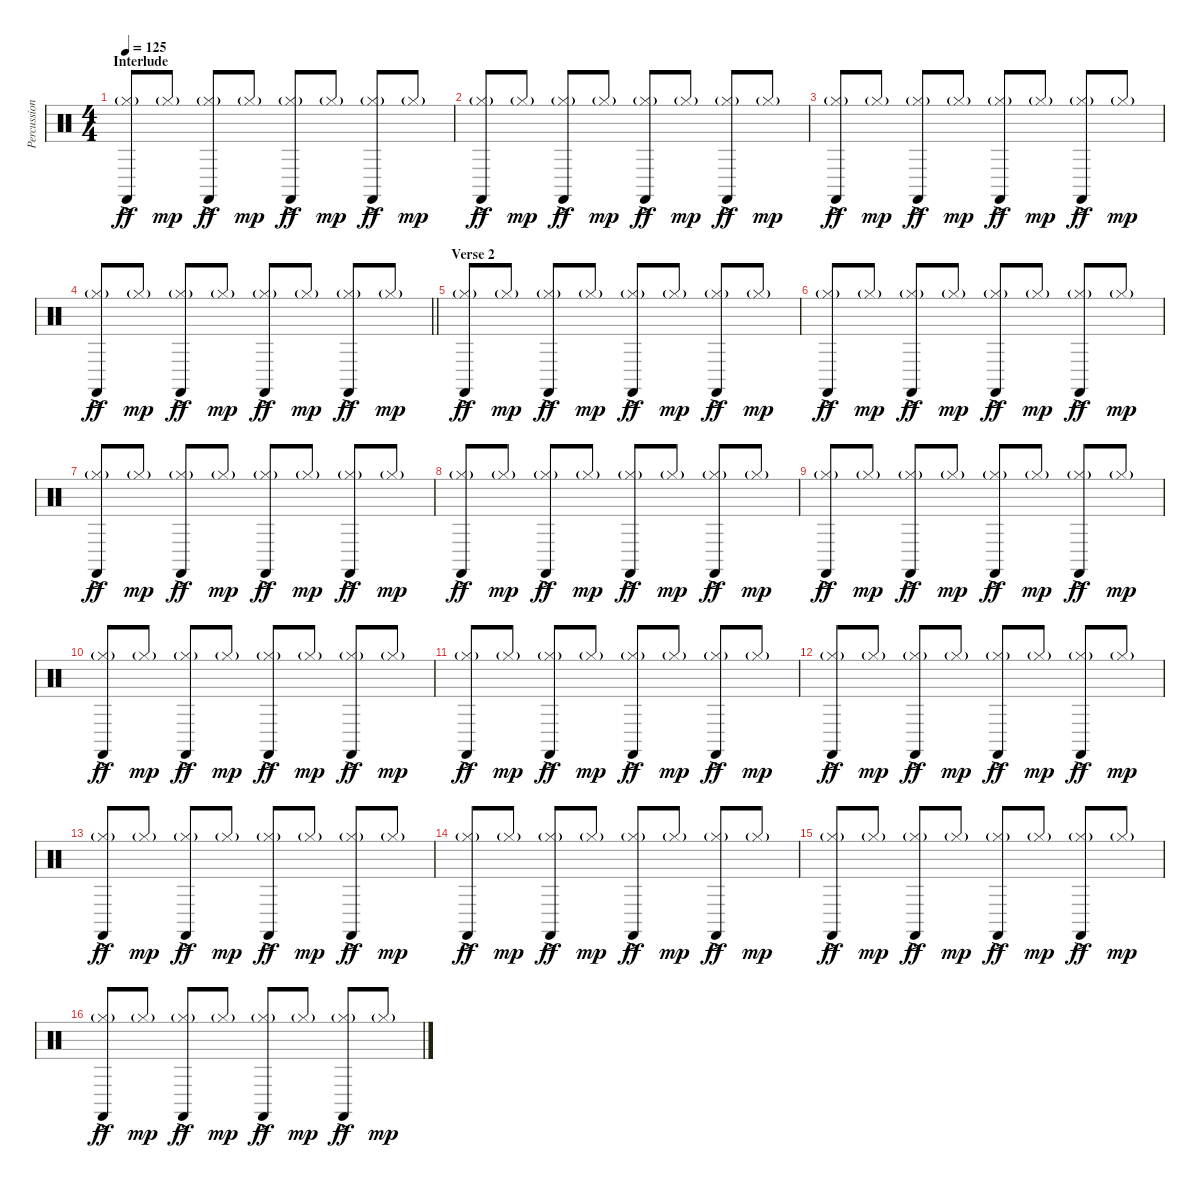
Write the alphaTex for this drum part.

\track ("Percussion" "Percussion") {instrument percussion}
\staff {score}
\articulation defaults
\ts (4 4)
\section ("" "Interlude")
\tempo 125
\clef neutral
\ks c
("Hi-Hat (closed)"{g} "Castanets (hit)"{ac}).8{dy ff} "Hi-Hat (closed)"{g}.8{dy mp} ("Hi-Hat (closed)"{g} "Castanets (hit)"{ac}).8{dy ff} "Hi-Hat (closed)"{g}.8{dy mp} ("Hi-Hat (closed)"{g} "Castanets (hit)"{ac}).8{dy ff} "Hi-Hat (closed)"{g}.8{dy mp} ("Hi-Hat (closed)"{g} "Castanets (hit)"{ac}).8{dy ff} "Hi-Hat (closed)"{g}.8{dy mp} |
("Hi-Hat (closed)"{g} "Castanets (hit)"{ac}).8{dy ff} "Hi-Hat (closed)"{g}.8{dy mp} ("Hi-Hat (closed)"{g} "Castanets (hit)"{ac}).8{dy ff} "Hi-Hat (closed)"{g}.8{dy mp} ("Hi-Hat (closed)"{g} "Castanets (hit)"{ac}).8{dy ff} "Hi-Hat (closed)"{g}.8{dy mp} ("Hi-Hat (closed)"{g} "Castanets (hit)"{ac}).8{dy ff} "Hi-Hat (closed)"{g}.8{dy mp} |
("Hi-Hat (closed)"{g} "Castanets (hit)"{ac}).8{dy ff} "Hi-Hat (closed)"{g}.8{dy mp} ("Hi-Hat (closed)"{g} "Castanets (hit)"{ac}).8{dy ff} "Hi-Hat (closed)"{g}.8{dy mp} ("Hi-Hat (closed)"{g} "Castanets (hit)"{ac}).8{dy ff} "Hi-Hat (closed)"{g}.8{dy mp} ("Hi-Hat (closed)"{g} "Castanets (hit)"{ac}).8{dy ff} "Hi-Hat (closed)"{g}.8{dy mp} |
\barLineRight lightlight
("Hi-Hat (closed)"{g} "Castanets (hit)"{ac}).8{dy ff} "Hi-Hat (closed)"{g}.8{dy mp} ("Hi-Hat (closed)"{g} "Castanets (hit)"{ac}).8{dy ff} "Hi-Hat (closed)"{g}.8{dy mp} ("Hi-Hat (closed)"{g} "Castanets (hit)"{ac}).8{dy ff} "Hi-Hat (closed)"{g}.8{dy mp} ("Hi-Hat (closed)"{g} "Castanets (hit)"{ac}).8{dy ff} "Hi-Hat (closed)"{g}.8{dy mp} |
\section ("" "Verse 2")
("Hi-Hat (closed)"{g} "Castanets (hit)"{ac}).8{dy ff} "Hi-Hat (closed)"{g}.8{dy mp} ("Hi-Hat (closed)"{g} "Castanets (hit)"{ac}).8{dy ff} "Hi-Hat (closed)"{g}.8{dy mp} ("Hi-Hat (closed)"{g} "Castanets (hit)"{ac}).8{dy ff} "Hi-Hat (closed)"{g}.8{dy mp} ("Hi-Hat (closed)"{g} "Castanets (hit)"{ac}).8{dy ff} "Hi-Hat (closed)"{g}.8{dy mp} |
("Hi-Hat (closed)"{g} "Castanets (hit)"{ac}).8{dy ff} "Hi-Hat (closed)"{g}.8{dy mp} ("Hi-Hat (closed)"{g} "Castanets (hit)"{ac}).8{dy ff} "Hi-Hat (closed)"{g}.8{dy mp} ("Hi-Hat (closed)"{g} "Castanets (hit)"{ac}).8{dy ff} "Hi-Hat (closed)"{g}.8{dy mp} ("Hi-Hat (closed)"{g} "Castanets (hit)"{ac}).8{dy ff} "Hi-Hat (closed)"{g}.8{dy mp} |
("Hi-Hat (closed)"{g} "Castanets (hit)"{ac}).8{dy ff} "Hi-Hat (closed)"{g}.8{dy mp} ("Hi-Hat (closed)"{g} "Castanets (hit)"{ac}).8{dy ff} "Hi-Hat (closed)"{g}.8{dy mp} ("Hi-Hat (closed)"{g} "Castanets (hit)"{ac}).8{dy ff} "Hi-Hat (closed)"{g}.8{dy mp} ("Hi-Hat (closed)"{g} "Castanets (hit)"{ac}).8{dy ff} "Hi-Hat (closed)"{g}.8{dy mp} |
("Hi-Hat (closed)"{g} "Castanets (hit)"{ac}).8{dy ff} "Hi-Hat (closed)"{g}.8{dy mp} ("Hi-Hat (closed)"{g} "Castanets (hit)"{ac}).8{dy ff} "Hi-Hat (closed)"{g}.8{dy mp} ("Hi-Hat (closed)"{g} "Castanets (hit)"{ac}).8{dy ff} "Hi-Hat (closed)"{g}.8{dy mp} ("Hi-Hat (closed)"{g} "Castanets (hit)"{ac}).8{dy ff} "Hi-Hat (closed)"{g}.8{dy mp} |
("Hi-Hat (closed)"{g} "Castanets (hit)"{ac}).8{dy ff} "Hi-Hat (closed)"{g}.8{dy mp} ("Hi-Hat (closed)"{g} "Castanets (hit)"{ac}).8{dy ff} "Hi-Hat (closed)"{g}.8{dy mp} ("Hi-Hat (closed)"{g} "Castanets (hit)"{ac}).8{dy ff} "Hi-Hat (closed)"{g}.8{dy mp} ("Hi-Hat (closed)"{g} "Castanets (hit)"{ac}).8{dy ff} "Hi-Hat (closed)"{g}.8{dy mp} |
("Hi-Hat (closed)"{g} "Castanets (hit)"{ac}).8{dy ff} "Hi-Hat (closed)"{g}.8{dy mp} ("Hi-Hat (closed)"{g} "Castanets (hit)"{ac}).8{dy ff} "Hi-Hat (closed)"{g}.8{dy mp} ("Hi-Hat (closed)"{g} "Castanets (hit)"{ac}).8{dy ff} "Hi-Hat (closed)"{g}.8{dy mp} ("Hi-Hat (closed)"{g} "Castanets (hit)"{ac}).8{dy ff} "Hi-Hat (closed)"{g}.8{dy mp} |
("Hi-Hat (closed)"{g} "Castanets (hit)"{ac}).8{dy ff} "Hi-Hat (closed)"{g}.8{dy mp} ("Hi-Hat (closed)"{g} "Castanets (hit)"{ac}).8{dy ff} "Hi-Hat (closed)"{g}.8{dy mp} ("Hi-Hat (closed)"{g} "Castanets (hit)"{ac}).8{dy ff} "Hi-Hat (closed)"{g}.8{dy mp} ("Hi-Hat (closed)"{g} "Castanets (hit)"{ac}).8{dy ff} "Hi-Hat (closed)"{g}.8{dy mp} |
("Hi-Hat (closed)"{g} "Castanets (hit)"{ac}).8{dy ff} "Hi-Hat (closed)"{g}.8{dy mp} ("Hi-Hat (closed)"{g} "Castanets (hit)"{ac}).8{dy ff} "Hi-Hat (closed)"{g}.8{dy mp} ("Hi-Hat (closed)"{g} "Castanets (hit)"{ac}).8{dy ff} "Hi-Hat (closed)"{g}.8{dy mp} ("Hi-Hat (closed)"{g} "Castanets (hit)"{ac}).8{dy ff} "Hi-Hat (closed)"{g}.8{dy mp} |
("Hi-Hat (closed)"{g} "Castanets (hit)"{ac}).8{dy ff} "Hi-Hat (closed)"{g}.8{dy mp} ("Hi-Hat (closed)"{g} "Castanets (hit)"{ac}).8{dy ff} "Hi-Hat (closed)"{g}.8{dy mp} ("Hi-Hat (closed)"{g} "Castanets (hit)"{ac}).8{dy ff} "Hi-Hat (closed)"{g}.8{dy mp} ("Hi-Hat (closed)"{g} "Castanets (hit)"{ac}).8{dy ff} "Hi-Hat (closed)"{g}.8{dy mp} |
("Hi-Hat (closed)"{g} "Castanets (hit)"{ac}).8{dy ff} "Hi-Hat (closed)"{g}.8{dy mp} ("Hi-Hat (closed)"{g} "Castanets (hit)"{ac}).8{dy ff} "Hi-Hat (closed)"{g}.8{dy mp} ("Hi-Hat (closed)"{g} "Castanets (hit)"{ac}).8{dy ff} "Hi-Hat (closed)"{g}.8{dy mp} ("Hi-Hat (closed)"{g} "Castanets (hit)"{ac}).8{dy ff} "Hi-Hat (closed)"{g}.8{dy mp} |
("Hi-Hat (closed)"{g} "Castanets (hit)"{ac}).8{dy ff} "Hi-Hat (closed)"{g}.8{dy mp} ("Hi-Hat (closed)"{g} "Castanets (hit)"{ac}).8{dy ff} "Hi-Hat (closed)"{g}.8{dy mp} ("Hi-Hat (closed)"{g} "Castanets (hit)"{ac}).8{dy ff} "Hi-Hat (closed)"{g}.8{dy mp} ("Hi-Hat (closed)"{g} "Castanets (hit)"{ac}).8{dy ff} "Hi-Hat (closed)"{g}.8{dy mp} |
("Hi-Hat (closed)"{g} "Castanets (hit)"{ac}).8{dy ff} "Hi-Hat (closed)"{g}.8{dy mp} ("Hi-Hat (closed)"{g} "Castanets (hit)"{ac}).8{dy ff} "Hi-Hat (closed)"{g}.8{dy mp} ("Hi-Hat (closed)"{g} "Castanets (hit)"{ac}).8{dy ff} "Hi-Hat (closed)"{g}.8{dy mp} ("Hi-Hat (closed)"{g} "Castanets (hit)"{ac}).8{dy ff} "Hi-Hat (closed)"{g}.8{dy mp}
